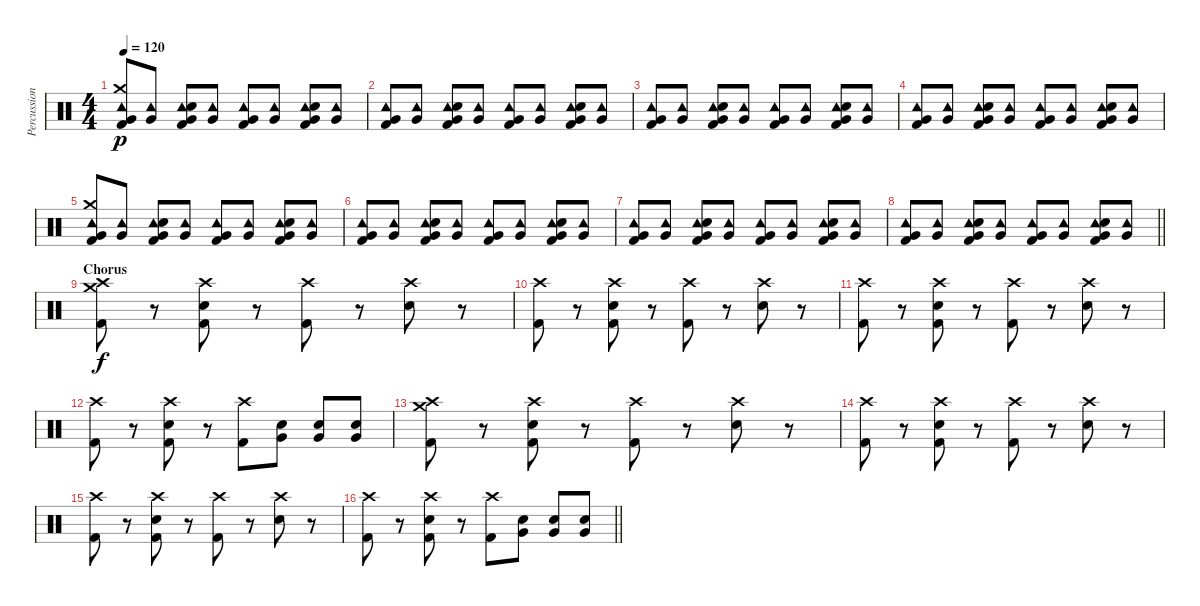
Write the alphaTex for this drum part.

\track ("Percussion" "Percussion") {instrument percussion}
\staff {score}
\articulation defaults
\ts (4 4)
\tempo 120
\clef neutral
\ks c
("Tambourine (hit)" "Crash medium (hit)" "Very Low Tom (hit)" "Kick (hit) 2").8{dy p} ("Tambourine (hit)" "Very Low Tom (hit)").8 ("Tambourine (hit)" "Very Low Tom (hit)" "Snare (hit) 2" "Kick (hit) 2").8 ("Tambourine (hit)" "Very Low Tom (hit)").8 ("Tambourine (hit)" "Very Low Tom (hit)" "Kick (hit) 2").8 ("Tambourine (hit)" "Very Low Tom (hit)").8 ("Tambourine (hit)" "Very Low Tom (hit)" "Snare (hit) 2" "Kick (hit) 2").8 ("Tambourine (hit)" "Very Low Tom (hit)").8 |
("Tambourine (hit)" "Very Low Tom (hit)" "Kick (hit) 2").8 ("Tambourine (hit)" "Very Low Tom (hit)").8 ("Tambourine (hit)" "Very Low Tom (hit)" "Snare (hit) 2" "Kick (hit) 2").8 ("Tambourine (hit)" "Very Low Tom (hit)").8 ("Tambourine (hit)" "Very Low Tom (hit)" "Kick (hit) 2").8 ("Tambourine (hit)" "Very Low Tom (hit)").8 ("Tambourine (hit)" "Very Low Tom (hit)" "Snare (hit) 2" "Kick (hit) 2").8 ("Tambourine (hit)" "Very Low Tom (hit)").8 |
("Tambourine (hit)" "Very Low Tom (hit)" "Kick (hit) 2").8 ("Tambourine (hit)" "Very Low Tom (hit)").8 ("Tambourine (hit)" "Very Low Tom (hit)" "Snare (hit) 2" "Kick (hit) 2").8 ("Tambourine (hit)" "Very Low Tom (hit)").8 ("Tambourine (hit)" "Very Low Tom (hit)" "Kick (hit) 2").8 ("Tambourine (hit)" "Very Low Tom (hit)").8 ("Tambourine (hit)" "Very Low Tom (hit)" "Snare (hit) 2" "Kick (hit) 2").8 ("Tambourine (hit)" "Very Low Tom (hit)").8 |
("Tambourine (hit)" "Very Low Tom (hit)" "Kick (hit) 2").8 ("Tambourine (hit)" "Very Low Tom (hit)").8 ("Tambourine (hit)" "Very Low Tom (hit)" "Snare (hit) 2" "Kick (hit) 2").8 ("Tambourine (hit)" "Very Low Tom (hit)").8 ("Tambourine (hit)" "Very Low Tom (hit)" "Kick (hit) 2").8 ("Tambourine (hit)" "Very Low Tom (hit)").8 ("Tambourine (hit)" "Very Low Tom (hit)" "Snare (hit) 2" "Kick (hit) 2").8 ("Tambourine (hit)" "Very Low Tom (hit)").8 |
("Tambourine (hit)" "Crash medium (hit)" "Very Low Tom (hit)" "Kick (hit) 2").8 ("Tambourine (hit)" "Very Low Tom (hit)").8 ("Tambourine (hit)" "Very Low Tom (hit)" "Snare (hit) 2" "Kick (hit) 2").8 ("Tambourine (hit)" "Very Low Tom (hit)").8 ("Tambourine (hit)" "Very Low Tom (hit)" "Kick (hit) 2").8 ("Tambourine (hit)" "Very Low Tom (hit)").8 ("Tambourine (hit)" "Very Low Tom (hit)" "Snare (hit) 2" "Kick (hit) 2").8 ("Tambourine (hit)" "Very Low Tom (hit)").8 |
("Tambourine (hit)" "Very Low Tom (hit)" "Kick (hit) 2").8 ("Tambourine (hit)" "Very Low Tom (hit)").8 ("Tambourine (hit)" "Very Low Tom (hit)" "Snare (hit) 2" "Kick (hit) 2").8 ("Tambourine (hit)" "Very Low Tom (hit)").8 ("Tambourine (hit)" "Very Low Tom (hit)" "Kick (hit) 2").8 ("Tambourine (hit)" "Very Low Tom (hit)").8 ("Tambourine (hit)" "Very Low Tom (hit)" "Snare (hit) 2" "Kick (hit) 2").8 ("Tambourine (hit)" "Very Low Tom (hit)").8 |
("Tambourine (hit)" "Very Low Tom (hit)" "Kick (hit) 2").8 ("Tambourine (hit)" "Very Low Tom (hit)").8 ("Tambourine (hit)" "Very Low Tom (hit)" "Snare (hit) 2" "Kick (hit) 2").8 ("Tambourine (hit)" "Very Low Tom (hit)").8 ("Tambourine (hit)" "Very Low Tom (hit)" "Kick (hit) 2").8 ("Tambourine (hit)" "Very Low Tom (hit)").8 ("Tambourine (hit)" "Very Low Tom (hit)" "Snare (hit) 2" "Kick (hit) 2").8 ("Tambourine (hit)" "Very Low Tom (hit)").8 |
\barLineRight lightlight
("Tambourine (hit)" "Very Low Tom (hit)" "Kick (hit) 2").8 ("Tambourine (hit)" "Very Low Tom (hit)").8 ("Tambourine (hit)" "Very Low Tom (hit)" "Snare (hit) 2" "Kick (hit) 2").8 ("Tambourine (hit)" "Very Low Tom (hit)").8 ("Tambourine (hit)" "Very Low Tom (hit)" "Kick (hit) 2").8 ("Tambourine (hit)" "Very Low Tom (hit)").8 ("Tambourine (hit)" "Very Low Tom (hit)" "Snare (hit) 2" "Kick (hit) 2").8 ("Tambourine (hit)" "Very Low Tom (hit)").8 |
\section ("" "Chorus")
("Crash medium (hit)" "Crash high (hit)" "Kick (hit) 2").8{dy f} r.8 ("Crash high (hit)" "Snare (hit) 2" "Kick (hit) 2").8 r.8 ("Crash high (hit)" "Kick (hit) 2").8 r.8 ("Crash high (hit)" "Snare (hit) 2").8 r.8 |
("Crash high (hit)" "Kick (hit) 2").8 r.8 ("Crash high (hit)" "Snare (hit) 2" "Kick (hit) 2").8 r.8 ("Crash high (hit)" "Kick (hit) 2").8 r.8 ("Crash high (hit)" "Snare (hit) 2").8 r.8 |
("Crash high (hit)" "Kick (hit) 2").8 r.8 ("Crash high (hit)" "Snare (hit) 2" "Kick (hit) 2").8 r.8 ("Crash high (hit)" "Kick (hit) 2").8 r.8 ("Crash high (hit)" "Snare (hit) 2").8 r.8 |
("Crash high (hit)" "Kick (hit) 2").8 r.8 ("Crash high (hit)" "Snare (hit) 2" "Kick (hit) 2").8 r.8 ("Crash high (hit)" "Kick (hit) 2").8 ("Very Low Tom (hit)" "Snare (hit) 2").8 ("Very Low Tom (hit)" "Snare (hit) 2").8 ("Very Low Tom (hit)" "Snare (hit) 2").8 |
("Crash medium (hit)" "Crash high (hit)" "Kick (hit) 2").8 r.8 ("Crash high (hit)" "Snare (hit) 2" "Kick (hit) 2").8 r.8 ("Crash high (hit)" "Kick (hit) 2").8 r.8 ("Crash high (hit)" "Snare (hit) 2").8 r.8 |
("Crash high (hit)" "Kick (hit) 2").8 r.8 ("Crash high (hit)" "Snare (hit) 2" "Kick (hit) 2").8 r.8 ("Crash high (hit)" "Kick (hit) 2").8 r.8 ("Crash high (hit)" "Snare (hit) 2").8 r.8 |
("Crash high (hit)" "Kick (hit) 2").8 r.8 ("Crash high (hit)" "Snare (hit) 2" "Kick (hit) 2").8 r.8 ("Crash high (hit)" "Kick (hit) 2").8 r.8 ("Crash high (hit)" "Snare (hit) 2").8 r.8 |
\barLineRight lightlight
("Crash high (hit)" "Kick (hit) 2").8 r.8 ("Crash high (hit)" "Snare (hit) 2" "Kick (hit) 2").8 r.8 ("Crash high (hit)" "Kick (hit) 2").8 ("Very Low Tom (hit)" "Snare (hit) 2").8 ("Very Low Tom (hit)" "Snare (hit) 2").8 ("Very Low Tom (hit)" "Snare (hit) 2").8
